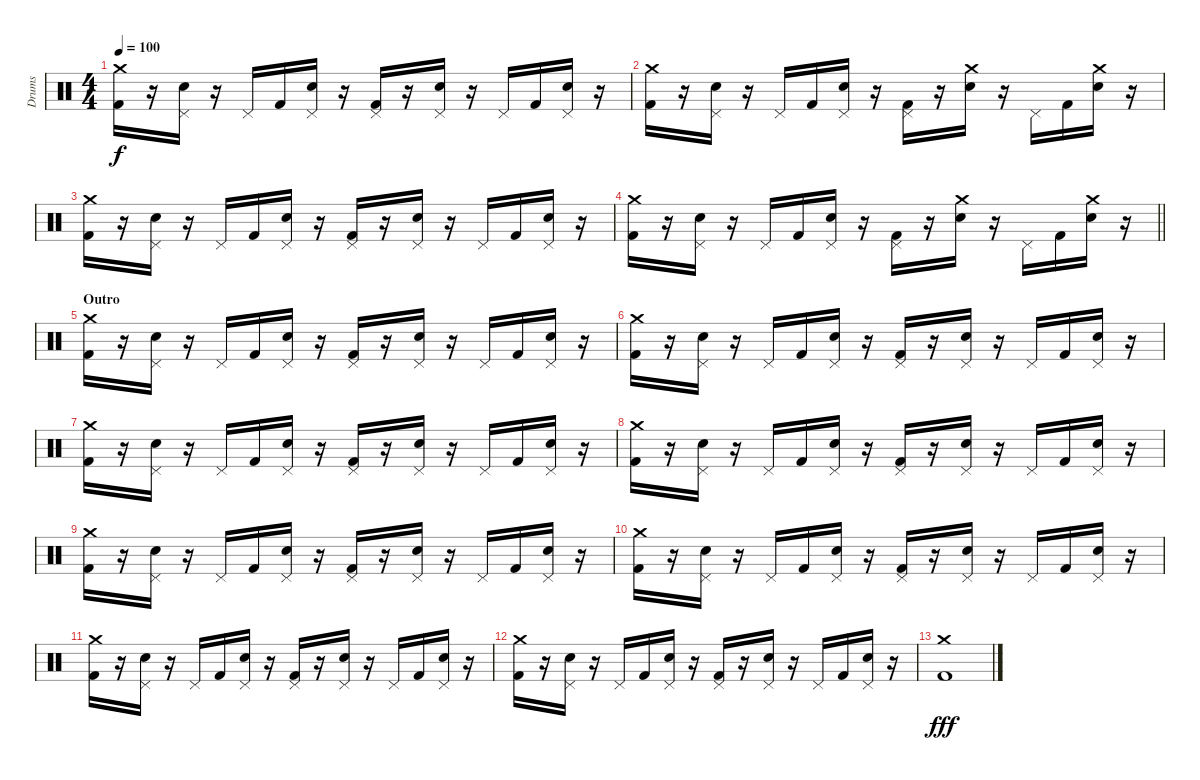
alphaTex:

\track ("Drums" "Drums") {instrument percussion}
\staff {score}
\articulation defaults
\ts (4 4)
\tempo 100
\clef neutral
\ks c
("Crash medium (hit)" "Kick (hit) 2").16{dy f} r.16 ("Pedal Hi-Hat (hit)" "Electric Snare (hit)").16 r.16 "Pedal Hi-Hat (hit)".16 "Kick (hit) 2".16 ("Pedal Hi-Hat (hit)" "Electric Snare (hit)").16 r.16 ("Pedal Hi-Hat (hit)" "Kick (hit) 2").16 r.16 ("Pedal Hi-Hat (hit)" "Electric Snare (hit)").16 r.16 "Pedal Hi-Hat (hit)".16 "Kick (hit) 2".16 ("Pedal Hi-Hat (hit)" "Electric Snare (hit)").16 r.16 |
("Crash medium (hit)" "Kick (hit) 2").16 r.16 ("Pedal Hi-Hat (hit)" "Electric Snare (hit)").16 r.16 "Pedal Hi-Hat (hit)".16 "Kick (hit) 2".16 ("Pedal Hi-Hat (hit)" "Electric Snare (hit)").16 r.16 ("Pedal Hi-Hat (hit)" "Kick (hit) 2").16 r.16 ("Crash medium (hit)" "Electric Snare (hit)").16 r.16 "Pedal Hi-Hat (hit)".16 "Kick (hit) 2".16 ("Crash medium (hit)" "Electric Snare (hit)").16 r.16 |
("Crash medium (hit)" "Kick (hit) 2").16 r.16 ("Pedal Hi-Hat (hit)" "Electric Snare (hit)").16 r.16 "Pedal Hi-Hat (hit)".16 "Kick (hit) 2".16 ("Pedal Hi-Hat (hit)" "Electric Snare (hit)").16 r.16 ("Pedal Hi-Hat (hit)" "Kick (hit) 2").16 r.16 ("Pedal Hi-Hat (hit)" "Electric Snare (hit)").16 r.16 "Pedal Hi-Hat (hit)".16 "Kick (hit) 2".16 ("Pedal Hi-Hat (hit)" "Electric Snare (hit)").16 r.16 |
\barLineRight lightlight
("Crash medium (hit)" "Kick (hit) 2").16 r.16 ("Pedal Hi-Hat (hit)" "Electric Snare (hit)").16 r.16 "Pedal Hi-Hat (hit)".16 "Kick (hit) 2".16 ("Pedal Hi-Hat (hit)" "Electric Snare (hit)").16 r.16 ("Pedal Hi-Hat (hit)" "Kick (hit) 2").16 r.16 ("Crash medium (hit)" "Electric Snare (hit)").16 r.16 "Pedal Hi-Hat (hit)".16 "Kick (hit) 2".16 ("Crash medium (hit)" "Electric Snare (hit)").16 r.16 |
\section ("" "Outro")
("Crash medium (hit)" "Kick (hit) 2").16 r.16 ("Pedal Hi-Hat (hit)" "Electric Snare (hit)").16 r.16 "Pedal Hi-Hat (hit)".16 "Kick (hit) 2".16 ("Pedal Hi-Hat (hit)" "Electric Snare (hit)").16 r.16 ("Pedal Hi-Hat (hit)" "Kick (hit) 2").16 r.16 ("Pedal Hi-Hat (hit)" "Electric Snare (hit)").16 r.16 "Pedal Hi-Hat (hit)".16 "Kick (hit) 2".16 ("Pedal Hi-Hat (hit)" "Electric Snare (hit)").16 r.16 |
("Crash medium (hit)" "Kick (hit) 2").16 r.16 ("Pedal Hi-Hat (hit)" "Electric Snare (hit)").16 r.16 "Pedal Hi-Hat (hit)".16 "Kick (hit) 2".16 ("Pedal Hi-Hat (hit)" "Electric Snare (hit)").16 r.16 ("Pedal Hi-Hat (hit)" "Kick (hit) 2").16 r.16 ("Pedal Hi-Hat (hit)" "Electric Snare (hit)").16 r.16 "Pedal Hi-Hat (hit)".16 "Kick (hit) 2".16 ("Pedal Hi-Hat (hit)" "Electric Snare (hit)").16 r.16 |
("Crash medium (hit)" "Kick (hit) 2").16 r.16 ("Pedal Hi-Hat (hit)" "Electric Snare (hit)").16 r.16 "Pedal Hi-Hat (hit)".16 "Kick (hit) 2".16 ("Pedal Hi-Hat (hit)" "Electric Snare (hit)").16 r.16 ("Pedal Hi-Hat (hit)" "Kick (hit) 2").16 r.16 ("Pedal Hi-Hat (hit)" "Electric Snare (hit)").16 r.16 "Pedal Hi-Hat (hit)".16 "Kick (hit) 2".16 ("Pedal Hi-Hat (hit)" "Electric Snare (hit)").16 r.16 |
("Crash medium (hit)" "Kick (hit) 2").16 r.16 ("Pedal Hi-Hat (hit)" "Electric Snare (hit)").16 r.16 "Pedal Hi-Hat (hit)".16 "Kick (hit) 2".16 ("Pedal Hi-Hat (hit)" "Electric Snare (hit)").16 r.16 ("Pedal Hi-Hat (hit)" "Kick (hit) 2").16 r.16 ("Pedal Hi-Hat (hit)" "Electric Snare (hit)").16 r.16 "Pedal Hi-Hat (hit)".16 "Kick (hit) 2".16 ("Pedal Hi-Hat (hit)" "Electric Snare (hit)").16 r.16 |
("Crash medium (hit)" "Kick (hit) 2").16 r.16 ("Pedal Hi-Hat (hit)" "Electric Snare (hit)").16 r.16 "Pedal Hi-Hat (hit)".16 "Kick (hit) 2".16 ("Pedal Hi-Hat (hit)" "Electric Snare (hit)").16 r.16 ("Pedal Hi-Hat (hit)" "Kick (hit) 2").16 r.16 ("Pedal Hi-Hat (hit)" "Electric Snare (hit)").16 r.16 "Pedal Hi-Hat (hit)".16 "Kick (hit) 2".16 ("Pedal Hi-Hat (hit)" "Electric Snare (hit)").16 r.16 |
("Crash medium (hit)" "Kick (hit) 2").16 r.16 ("Pedal Hi-Hat (hit)" "Electric Snare (hit)").16 r.16 "Pedal Hi-Hat (hit)".16 "Kick (hit) 2".16 ("Pedal Hi-Hat (hit)" "Electric Snare (hit)").16 r.16 ("Pedal Hi-Hat (hit)" "Kick (hit) 2").16 r.16 ("Pedal Hi-Hat (hit)" "Electric Snare (hit)").16 r.16 "Pedal Hi-Hat (hit)".16 "Kick (hit) 2".16 ("Pedal Hi-Hat (hit)" "Electric Snare (hit)").16 r.16 |
("Crash medium (hit)" "Kick (hit) 2").16 r.16 ("Pedal Hi-Hat (hit)" "Electric Snare (hit)").16 r.16 "Pedal Hi-Hat (hit)".16 "Kick (hit) 2".16 ("Pedal Hi-Hat (hit)" "Electric Snare (hit)").16 r.16 ("Pedal Hi-Hat (hit)" "Kick (hit) 2").16 r.16 ("Pedal Hi-Hat (hit)" "Electric Snare (hit)").16 r.16 "Pedal Hi-Hat (hit)".16 "Kick (hit) 2".16 ("Pedal Hi-Hat (hit)" "Electric Snare (hit)").16 r.16 |
("Crash medium (hit)" "Kick (hit) 2").16 r.16 ("Pedal Hi-Hat (hit)" "Electric Snare (hit)").16 r.16 "Pedal Hi-Hat (hit)".16 "Kick (hit) 2".16 ("Pedal Hi-Hat (hit)" "Electric Snare (hit)").16 r.16 ("Pedal Hi-Hat (hit)" "Kick (hit) 2").16 r.16 ("Pedal Hi-Hat (hit)" "Electric Snare (hit)").16 r.16 "Pedal Hi-Hat (hit)".16 "Kick (hit) 2".16 ("Pedal Hi-Hat (hit)" "Electric Snare (hit)").16 r.16 |
("Kick (hit) 2" "Crash medium (hit)").1{dy fff}
